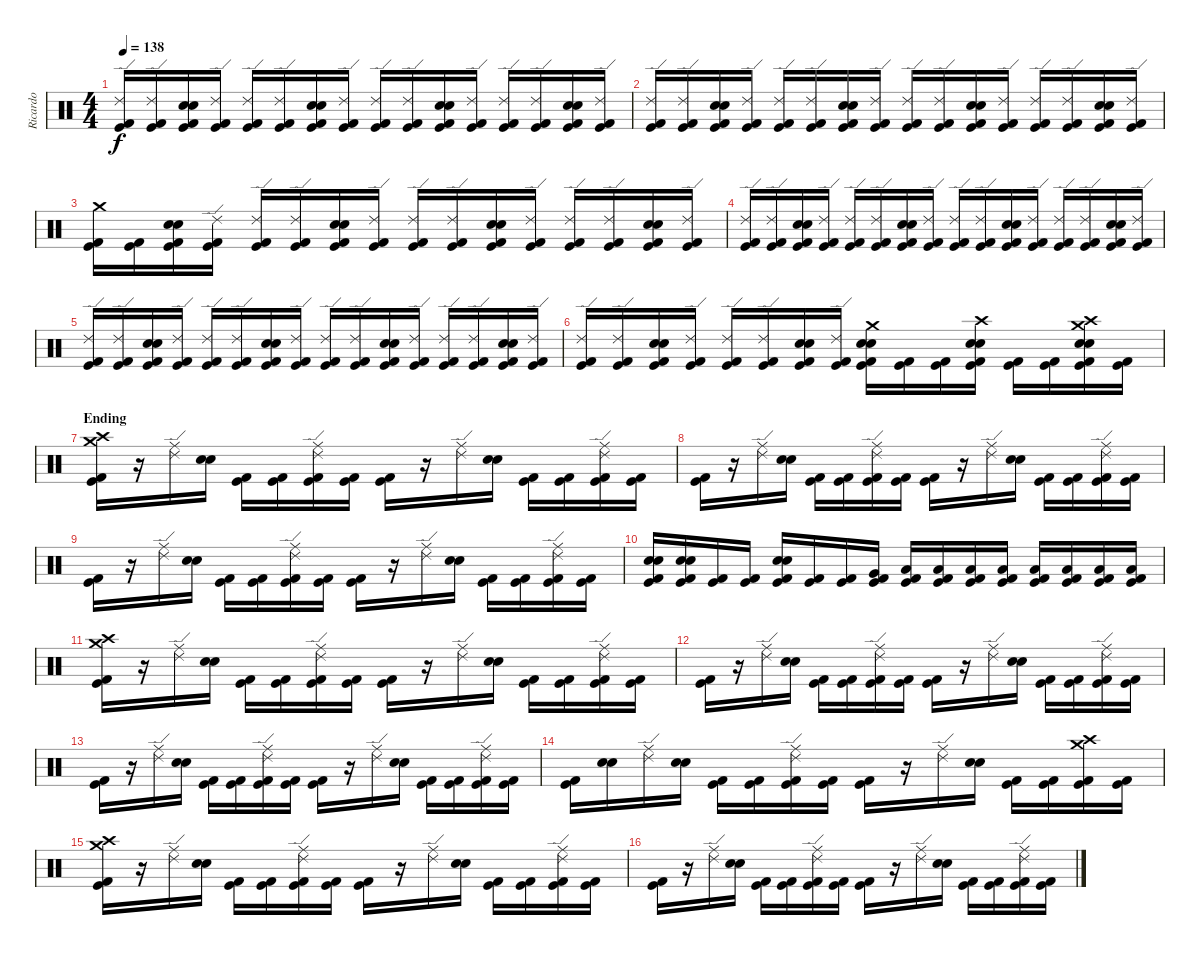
\track ("Ricardo" "Ricardo") {instrument percussion}
\staff {score}
\articulation defaults
\ts (4 4)
\tempo 138
\clef neutral
\ks c
("Ride (edge) 2" "Kick (hit) 2" "Kick (hit)").16{dy f} ("Ride (edge) 2" "Kick (hit) 2" "Kick (hit)").16 ("Electric Snare (hit)" "Snare (hit) 2" "Kick (hit) 2" "Kick (hit)").16 ("Ride (edge) 2" "Kick (hit) 2" "Kick (hit)").16 ("Ride (edge) 2" "Kick (hit) 2" "Kick (hit)").16 ("Ride (edge) 2" "Kick (hit) 2" "Kick (hit)").16 ("Electric Snare (hit)" "Snare (hit) 2" "Kick (hit) 2" "Kick (hit)").16 ("Ride (edge) 2" "Kick (hit) 2" "Kick (hit)").16 ("Ride (edge) 2" "Kick (hit) 2" "Kick (hit)").16 ("Ride (edge) 2" "Kick (hit) 2" "Kick (hit)").16 ("Electric Snare (hit)" "Snare (hit) 2" "Kick (hit) 2" "Kick (hit)").16 ("Ride (edge) 2" "Kick (hit) 2" "Kick (hit)").16 ("Ride (edge) 2" "Kick (hit) 2" "Kick (hit)").16 ("Ride (edge) 2" "Kick (hit) 2" "Kick (hit)").16 ("Electric Snare (hit)" "Snare (hit) 2" "Kick (hit) 2" "Kick (hit)").16 ("Ride (edge) 2" "Kick (hit) 2" "Kick (hit)").16 |
("Ride (edge) 2" "Kick (hit) 2" "Kick (hit)").16 ("Ride (edge) 2" "Kick (hit) 2" "Kick (hit)").16 ("Electric Snare (hit)" "Snare (hit) 2" "Kick (hit) 2" "Kick (hit)").16 ("Ride (edge) 2" "Kick (hit) 2" "Kick (hit)").16 ("Ride (edge) 2" "Kick (hit) 2" "Kick (hit)").16 ("Ride (edge) 2" "Kick (hit) 2" "Kick (hit)").16 ("Electric Snare (hit)" "Snare (hit) 2" "Kick (hit) 2" "Kick (hit)").16 ("Ride (edge) 2" "Kick (hit) 2" "Kick (hit)").16 ("Ride (edge) 2" "Kick (hit) 2" "Kick (hit)").16 ("Ride (edge) 2" "Kick (hit) 2" "Kick (hit)").16 ("Electric Snare (hit)" "Snare (hit) 2" "Kick (hit) 2" "Kick (hit)").16 ("Ride (edge) 2" "Kick (hit) 2" "Kick (hit)").16 ("Ride (edge) 2" "Kick (hit) 2" "Kick (hit)").16 ("Ride (edge) 2" "Kick (hit) 2" "Kick (hit)").16 ("Electric Snare (hit)" "Snare (hit) 2" "Kick (hit) 2" "Kick (hit)").16 ("Ride (edge) 2" "Kick (hit) 2" "Kick (hit)").16 |
("Crash medium (hit)" "Kick (hit) 2" "Kick (hit)").16 ("Kick (hit) 2" "Kick (hit)").16 ("Electric Snare (hit)" "Snare (hit) 2" "Kick (hit) 2" "Kick (hit)").16 ("Ride (edge) 2" "Kick (hit) 2" "Kick (hit)").16 ("Ride (edge) 2" "Kick (hit) 2" "Kick (hit)").16 ("Ride (edge) 2" "Kick (hit) 2" "Kick (hit)").16 ("Electric Snare (hit)" "Snare (hit) 2" "Kick (hit) 2" "Kick (hit)").16 ("Ride (edge) 2" "Kick (hit) 2" "Kick (hit)").16 ("Ride (edge) 2" "Kick (hit) 2" "Kick (hit)").16 ("Ride (edge) 2" "Kick (hit) 2" "Kick (hit)").16 ("Electric Snare (hit)" "Snare (hit) 2" "Kick (hit) 2" "Kick (hit)").16 ("Ride (edge) 2" "Kick (hit) 2" "Kick (hit)").16 ("Ride (edge) 2" "Kick (hit) 2" "Kick (hit)").16 ("Ride (edge) 2" "Kick (hit) 2" "Kick (hit)").16 ("Electric Snare (hit)" "Snare (hit) 2" "Kick (hit) 2" "Kick (hit)").16 ("Ride (edge) 2" "Kick (hit) 2" "Kick (hit)").16 |
("Ride (edge) 2" "Kick (hit) 2" "Kick (hit)").16 ("Ride (edge) 2" "Kick (hit) 2" "Kick (hit)").16 ("Electric Snare (hit)" "Snare (hit) 2" "Kick (hit) 2" "Kick (hit)").16 ("Ride (edge) 2" "Kick (hit) 2" "Kick (hit)").16 ("Ride (edge) 2" "Kick (hit) 2" "Kick (hit)").16 ("Ride (edge) 2" "Kick (hit) 2" "Kick (hit)").16 ("Electric Snare (hit)" "Snare (hit) 2" "Kick (hit) 2" "Kick (hit)").16 ("Ride (edge) 2" "Kick (hit) 2" "Kick (hit)").16 ("Ride (edge) 2" "Kick (hit) 2" "Kick (hit)").16 ("Ride (edge) 2" "Kick (hit) 2" "Kick (hit)").16 ("Electric Snare (hit)" "Snare (hit) 2" "Kick (hit) 2" "Kick (hit)").16 ("Ride (edge) 2" "Kick (hit) 2" "Kick (hit)").16 ("Ride (edge) 2" "Kick (hit) 2" "Kick (hit)").16 ("Ride (edge) 2" "Kick (hit) 2" "Kick (hit)").16 ("Electric Snare (hit)" "Snare (hit) 2" "Kick (hit) 2" "Kick (hit)").16 ("Ride (edge) 2" "Kick (hit) 2" "Kick (hit)").16 |
("Ride (edge) 2" "Kick (hit) 2" "Kick (hit)").16 ("Ride (edge) 2" "Kick (hit) 2" "Kick (hit)").16 ("Electric Snare (hit)" "Snare (hit) 2" "Kick (hit) 2" "Kick (hit)").16 ("Ride (edge) 2" "Kick (hit) 2" "Kick (hit)").16 ("Ride (edge) 2" "Kick (hit) 2" "Kick (hit)").16 ("Ride (edge) 2" "Kick (hit) 2" "Kick (hit)").16 ("Electric Snare (hit)" "Snare (hit) 2" "Kick (hit) 2" "Kick (hit)").16 ("Ride (edge) 2" "Kick (hit) 2" "Kick (hit)").16 ("Ride (edge) 2" "Kick (hit) 2" "Kick (hit)").16 ("Ride (edge) 2" "Kick (hit) 2" "Kick (hit)").16 ("Electric Snare (hit)" "Snare (hit) 2" "Kick (hit) 2" "Kick (hit)").16 ("Ride (edge) 2" "Kick (hit) 2" "Kick (hit)").16 ("Ride (edge) 2" "Kick (hit) 2" "Kick (hit)").16 ("Ride (edge) 2" "Kick (hit) 2" "Kick (hit)").16 ("Electric Snare (hit)" "Snare (hit) 2" "Kick (hit) 2" "Kick (hit)").16 ("Ride (edge) 2" "Kick (hit) 2" "Kick (hit)").16 |
("Ride (edge) 2" "Kick (hit) 2" "Kick (hit)").16 ("Ride (edge) 2" "Kick (hit) 2" "Kick (hit)").16 ("Electric Snare (hit)" "Snare (hit) 2" "Kick (hit) 2" "Kick (hit)").16 ("Ride (edge) 2" "Kick (hit) 2" "Kick (hit)").16 ("Ride (edge) 2" "Kick (hit) 2" "Kick (hit)").16 ("Ride (edge) 2" "Kick (hit) 2" "Kick (hit)").16 ("Electric Snare (hit)" "Snare (hit) 2" "Kick (hit) 2" "Kick (hit)").16 ("Ride (edge) 2" "Kick (hit) 2" "Kick (hit)").16 ("Crash medium (hit)" "Electric Snare (hit)" "Snare (hit) 2" "Kick (hit) 2" "Kick (hit)").16 ("Kick (hit) 2" "Kick (hit)").16 ("Kick (hit) 2" "Kick (hit)").16 ("Crash high (hit)" "Electric Snare (hit)" "Snare (hit) 2" "Kick (hit) 2" "Kick (hit)").16 ("Kick (hit) 2" "Kick (hit)").16 ("Kick (hit) 2" "Kick (hit)").16 ("Crash high (hit)" "Crash medium (hit)" "Electric Snare (hit)" "Snare (hit) 2" "Kick (hit) 2" "Kick (hit)").16 ("Kick (hit) 2" "Kick (hit)").16 |
\section ("" "Ending")
("Crash high (hit)" "Crash medium (hit)" "Kick (hit) 2" "Kick (hit)").16 r.16 ("Ride (middle)" "Ride (edge) 2").16 ("Electric Snare (hit)" "Snare (hit) 2").16 ("Kick (hit) 2" "Kick (hit)").16 ("Kick (hit) 2" "Kick (hit)").16 ("Ride (middle)" "Ride (edge) 2" "Kick (hit) 2" "Kick (hit)").16 ("Kick (hit) 2" "Kick (hit)").16 ("Kick (hit) 2" "Kick (hit)").16 r.16 ("Ride (middle)" "Ride (edge) 2").16 ("Electric Snare (hit)" "Snare (hit) 2").16 ("Kick (hit) 2" "Kick (hit)").16 ("Kick (hit) 2" "Kick (hit)").16 ("Ride (middle)" "Ride (edge) 2" "Kick (hit) 2" "Kick (hit)").16 ("Kick (hit) 2" "Kick (hit)").16 |
("Kick (hit) 2" "Kick (hit)").16 r.16 ("Ride (middle)" "Ride (edge) 2").16 ("Electric Snare (hit)" "Snare (hit) 2").16 ("Kick (hit) 2" "Kick (hit)").16 ("Kick (hit) 2" "Kick (hit)").16 ("Ride (middle)" "Ride (edge) 2" "Kick (hit) 2" "Kick (hit)").16 ("Kick (hit) 2" "Kick (hit)").16 ("Kick (hit) 2" "Kick (hit)").16 r.16 ("Ride (middle)" "Ride (edge) 2").16 ("Electric Snare (hit)" "Snare (hit) 2").16 ("Kick (hit) 2" "Kick (hit)").16 ("Kick (hit) 2" "Kick (hit)").16 ("Ride (middle)" "Ride (edge) 2" "Kick (hit) 2" "Kick (hit)").16 ("Kick (hit) 2" "Kick (hit)").16 |
("Kick (hit) 2" "Kick (hit)").16 r.16 ("Ride (middle)" "Ride (edge) 2").16 ("Electric Snare (hit)" "Snare (hit) 2").16 ("Kick (hit) 2" "Kick (hit)").16 ("Kick (hit) 2" "Kick (hit)").16 ("Ride (middle)" "Ride (edge) 2" "Kick (hit) 2" "Kick (hit)").16 ("Kick (hit) 2" "Kick (hit)").16 ("Kick (hit) 2" "Kick (hit)").16 r.16 ("Ride (middle)" "Ride (edge) 2").16 ("Electric Snare (hit)" "Snare (hit) 2").16 ("Kick (hit) 2" "Kick (hit)").16 ("Kick (hit) 2" "Kick (hit)").16 ("Ride (middle)" "Ride (edge) 2" "Kick (hit) 2" "Kick (hit)").16 ("Kick (hit) 2" "Kick (hit)").16 |
("Snare (hit) 2" "Electric Snare (hit)" "Kick (hit) 2" "Kick (hit)").16 ("Snare (hit) 2" "Electric Snare (hit)" "Kick (hit) 2" "Kick (hit)").16 ("Kick (hit) 2" "Kick (hit)").16 ("Kick (hit) 2" "Kick (hit)").16 ("Electric Snare (hit)" "Snare (hit) 2" "Kick (hit) 2" "Kick (hit)").16 ("Kick (hit) 2" "Kick (hit)").16 ("Kick (hit) 2" "Kick (hit)").16 ("Very Low Tom (hit)" "Kick (hit) 2" "Kick (hit)").16 ("Low Floor Tom (hit)" "Kick (hit) 2" "Kick (hit)").16 ("Low Floor Tom (hit)" "Kick (hit) 2" "Kick (hit)").16 ("Low Floor Tom (hit)" "Kick (hit) 2" "Kick (hit)").16 ("Low Floor Tom (hit)" "Kick (hit)" "Kick (hit) 2").16 ("Low Floor Tom (hit)" "Kick (hit)" "Kick (hit) 2").16 ("Low Floor Tom (hit)" "Kick (hit) 2" "Kick (hit)").16 ("Low Floor Tom (hit)" "Kick (hit) 2" "Kick (hit)").16 ("Low Floor Tom (hit)" "Kick (hit) 2" "Kick (hit)").16 |
("Crash high (hit)" "Crash medium (hit)" "Kick (hit) 2" "Kick (hit)").16 r.16 ("Ride (middle)" "Ride (edge) 2").16 ("Electric Snare (hit)" "Snare (hit) 2").16 ("Kick (hit) 2" "Kick (hit)").16 ("Kick (hit) 2" "Kick (hit)").16 ("Ride (middle)" "Ride (edge) 2" "Kick (hit) 2" "Kick (hit)").16 ("Kick (hit) 2" "Kick (hit)").16 ("Kick (hit) 2" "Kick (hit)").16 r.16 ("Ride (middle)" "Ride (edge) 2").16 ("Electric Snare (hit)" "Snare (hit) 2").16 ("Kick (hit) 2" "Kick (hit)").16 ("Kick (hit) 2" "Kick (hit)").16 ("Ride (middle)" "Ride (edge) 2" "Kick (hit) 2" "Kick (hit)").16 ("Kick (hit) 2" "Kick (hit)").16 |
("Kick (hit) 2" "Kick (hit)").16 r.16 ("Ride (middle)" "Ride (edge) 2").16 ("Electric Snare (hit)" "Snare (hit) 2").16 ("Kick (hit) 2" "Kick (hit)").16 ("Kick (hit) 2" "Kick (hit)").16 ("Ride (middle)" "Ride (edge) 2" "Kick (hit) 2" "Kick (hit)").16 ("Kick (hit) 2" "Kick (hit)").16 ("Kick (hit) 2" "Kick (hit)").16 r.16 ("Ride (middle)" "Ride (edge) 2").16 ("Electric Snare (hit)" "Snare (hit) 2").16 ("Kick (hit) 2" "Kick (hit)").16 ("Kick (hit) 2" "Kick (hit)").16 ("Ride (middle)" "Ride (edge) 2" "Kick (hit) 2" "Kick (hit)").16 ("Kick (hit) 2" "Kick (hit)").16 |
("Kick (hit) 2" "Kick (hit)").16 r.16 ("Ride (middle)" "Ride (edge) 2").16 ("Electric Snare (hit)" "Snare (hit) 2").16 ("Kick (hit) 2" "Kick (hit)").16 ("Kick (hit) 2" "Kick (hit)").16 ("Ride (middle)" "Ride (edge) 2" "Kick (hit) 2" "Kick (hit)").16 ("Kick (hit) 2" "Kick (hit)").16 ("Kick (hit) 2" "Kick (hit)").16 r.16 ("Ride (middle)" "Ride (edge) 2").16 ("Electric Snare (hit)" "Snare (hit) 2").16 ("Kick (hit) 2" "Kick (hit)").16 ("Kick (hit) 2" "Kick (hit)").16 ("Ride (middle)" "Ride (edge) 2" "Kick (hit) 2" "Kick (hit)").16 ("Kick (hit) 2" "Kick (hit)").16 |
("Kick (hit) 2" "Kick (hit)").16 ("Electric Snare (hit)" "Snare (hit) 2").16 ("Ride (middle)" "Ride (edge) 2").16 ("Electric Snare (hit)" "Snare (hit) 2").16 ("Kick (hit) 2" "Kick (hit)").16 ("Kick (hit) 2" "Kick (hit)").16 ("Ride (middle)" "Ride (edge) 2" "Kick (hit) 2" "Kick (hit)").16 ("Kick (hit) 2" "Kick (hit)").16 ("Kick (hit) 2" "Kick (hit)").16 r.16 ("Ride (middle)" "Ride (edge) 2").16 ("Electric Snare (hit)" "Snare (hit) 2").16 ("Kick (hit) 2" "Kick (hit)").16 ("Kick (hit) 2" "Kick (hit)").16 ("Crash high (hit)" "Crash medium (hit)" "Kick (hit) 2" "Kick (hit)").16 ("Kick (hit) 2" "Kick (hit)").16 |
("Crash medium (hit)" "Crash high (hit)" "Kick (hit) 2" "Kick (hit)").16 r.16 ("Ride (middle)" "Ride (edge) 2").16 ("Electric Snare (hit)" "Snare (hit) 2").16 ("Kick (hit) 2" "Kick (hit)").16 ("Kick (hit) 2" "Kick (hit)").16 ("Ride (middle)" "Ride (edge) 2" "Kick (hit) 2" "Kick (hit)").16 ("Kick (hit) 2" "Kick (hit)").16 ("Kick (hit) 2" "Kick (hit)").16 r.16 ("Ride (middle)" "Ride (edge) 2").16 ("Electric Snare (hit)" "Snare (hit) 2").16 ("Kick (hit) 2" "Kick (hit)").16 ("Kick (hit) 2" "Kick (hit)").16 ("Ride (middle)" "Ride (edge) 2" "Kick (hit) 2" "Kick (hit)").16 ("Kick (hit) 2" "Kick (hit)").16 |
("Kick (hit) 2" "Kick (hit)").16 r.16 ("Ride (middle)" "Ride (edge) 2").16 ("Electric Snare (hit)" "Snare (hit) 2").16 ("Kick (hit) 2" "Kick (hit)").16 ("Kick (hit) 2" "Kick (hit)").16 ("Ride (middle)" "Ride (edge) 2" "Kick (hit) 2" "Kick (hit)").16 ("Kick (hit) 2" "Kick (hit)").16 ("Kick (hit) 2" "Kick (hit)").16 r.16 ("Ride (middle)" "Ride (edge) 2").16 ("Electric Snare (hit)" "Snare (hit) 2").16 ("Kick (hit) 2" "Kick (hit)").16 ("Kick (hit) 2" "Kick (hit)").16 ("Ride (middle)" "Ride (edge) 2" "Kick (hit) 2" "Kick (hit)").16 ("Kick (hit) 2" "Kick (hit)").16
